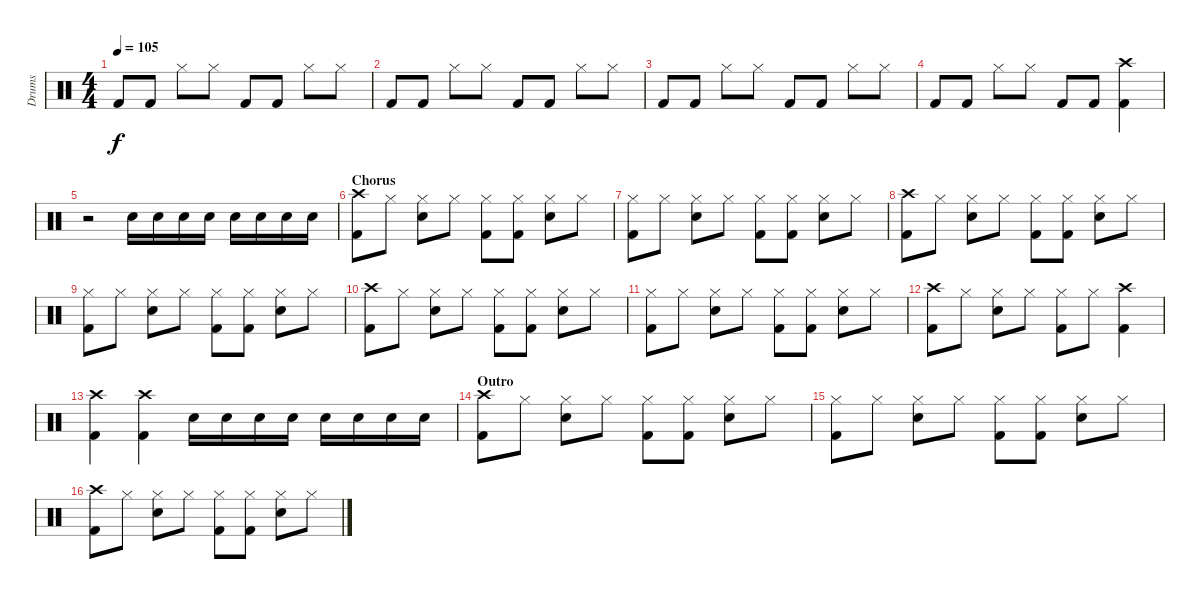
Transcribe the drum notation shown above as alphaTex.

\track ("Drums" "Drums") {instrument percussion}
\staff {score}
\articulation defaults
\ts (4 4)
\tempo 105
\clef neutral
\ks c "Kick (hit) 2".8{dy f} "Kick (hit) 2".8 "Hi-Hat (closed)".8 "Hi-Hat (closed)".8 "Kick (hit) 2".8 "Kick (hit) 2".8 "Hi-Hat (closed)".8 "Hi-Hat (closed)".8
|
"Kick (hit) 2".8 "Kick (hit) 2".8 "Hi-Hat (closed)".8 "Hi-Hat (closed)".8 "Kick (hit) 2".8 "Kick (hit) 2".8 "Hi-Hat (closed)".8 "Hi-Hat (closed)".8 |
"Kick (hit) 2".8 "Kick (hit) 2".8 "Hi-Hat (closed)".8 "Hi-Hat (closed)".8 "Kick (hit) 2".8 "Kick (hit) 2".8 "Hi-Hat (closed)".8 "Hi-Hat (closed)".8 |
"Kick (hit) 2".8 "Kick (hit) 2".8 "Hi-Hat (closed)".8 "Hi-Hat (closed)".8 "Kick (hit) 2".8 "Kick (hit) 2".8 ("Crash high (hit)" "Kick (hit) 2").4 |
r.2 "Snare (hit) 2".16 "Snare (hit) 2".16 "Snare (hit) 2".16 "Snare (hit) 2".16 "Snare (hit) 2".16 "Snare (hit) 2".16 "Snare (hit) 2".16 "Snare (hit) 2".16 |
\section ("" "Chorus")
("Crash high (hit)" "Kick (hit) 2").8 "Hi-Hat (closed)".8 ("Hi-Hat (closed)" "Snare (hit) 2").8 "Hi-Hat (closed)".8 ("Hi-Hat (closed)" "Kick (hit) 2").8 ("Hi-Hat (closed)" "Kick (hit) 2").8 ("Hi-Hat (closed)" "Snare (hit) 2").8 "Hi-Hat (closed)".8 |
("Hi-Hat (closed)" "Kick (hit) 2").8 "Hi-Hat (closed)".8 ("Hi-Hat (closed)" "Snare (hit) 2").8 "Hi-Hat (closed)".8 ("Hi-Hat (closed)" "Kick (hit) 2").8 ("Hi-Hat (closed)" "Kick (hit) 2").8 ("Hi-Hat (closed)" "Snare (hit) 2").8 "Hi-Hat (closed)".8 |
("Crash high (hit)" "Kick (hit) 2").8 "Hi-Hat (closed)".8 ("Hi-Hat (closed)" "Snare (hit) 2").8 "Hi-Hat (closed)".8 ("Hi-Hat (closed)" "Kick (hit) 2").8 ("Hi-Hat (closed)" "Kick (hit) 2").8 ("Hi-Hat (closed)" "Snare (hit) 2").8 "Hi-Hat (closed)".8 |
("Hi-Hat (closed)" "Kick (hit) 2").8 "Hi-Hat (closed)".8 ("Hi-Hat (closed)" "Snare (hit) 2").8 "Hi-Hat (closed)".8 ("Hi-Hat (closed)" "Kick (hit) 2").8 ("Hi-Hat (closed)" "Kick (hit) 2").8 ("Hi-Hat (closed)" "Snare (hit) 2").8 "Hi-Hat (closed)".8 |
("Crash high (hit)" "Kick (hit) 2").8 "Hi-Hat (closed)".8 ("Hi-Hat (closed)" "Snare (hit) 2").8 "Hi-Hat (closed)".8 ("Hi-Hat (closed)" "Kick (hit) 2").8 ("Hi-Hat (closed)" "Kick (hit) 2").8 ("Hi-Hat (closed)" "Snare (hit) 2").8 "Hi-Hat (closed)".8 |
("Hi-Hat (closed)" "Kick (hit) 2").8 "Hi-Hat (closed)".8 ("Hi-Hat (closed)" "Snare (hit) 2").8 "Hi-Hat (closed)".8 ("Hi-Hat (closed)" "Kick (hit) 2").8 ("Hi-Hat (closed)" "Kick (hit) 2").8 ("Hi-Hat (closed)" "Snare (hit) 2").8 "Hi-Hat (closed)".8 |
("Crash high (hit)" "Kick (hit) 2").8 "Hi-Hat (closed)".8 ("Hi-Hat (closed)" "Snare (hit) 2").8 "Hi-Hat (closed)".8 ("Hi-Hat (closed)" "Kick (hit) 2").8 "Hi-Hat (closed)".8 ("Crash high (hit)" "Kick (hit) 2").4 |
("Crash high (hit)" "Kick (hit) 2").4 ("Crash high (hit)" "Kick (hit) 2").4 "Snare (hit) 2".16 "Snare (hit) 2".16 "Snare (hit) 2".16 "Snare (hit) 2".16 "Snare (hit) 2".16 "Snare (hit) 2".16 "Snare (hit) 2".16 "Snare (hit) 2".16 |
\section ("" "Outro")
("Crash high (hit)" "Kick (hit) 2").8 "Hi-Hat (closed)".8 ("Hi-Hat (closed)" "Snare (hit) 2").8 "Hi-Hat (closed)".8 ("Hi-Hat (closed)" "Kick (hit) 2").8 ("Hi-Hat (closed)" "Kick (hit) 2").8 ("Hi-Hat (closed)" "Snare (hit) 2").8 "Hi-Hat (closed)".8 |
("Hi-Hat (closed)" "Kick (hit) 2").8 "Hi-Hat (closed)".8 ("Hi-Hat (closed)" "Snare (hit) 2").8 "Hi-Hat (closed)".8 ("Hi-Hat (closed)" "Kick (hit) 2").8 ("Hi-Hat (closed)" "Kick (hit) 2").8 ("Hi-Hat (closed)" "Snare (hit) 2").8 "Hi-Hat (closed)".8 |
("Crash high (hit)" "Kick (hit) 2").8 "Hi-Hat (closed)".8 ("Hi-Hat (closed)" "Snare (hit) 2").8 "Hi-Hat (closed)".8 ("Hi-Hat (closed)" "Kick (hit) 2").8 ("Hi-Hat (closed)" "Kick (hit) 2").8 ("Hi-Hat (closed)" "Snare (hit) 2").8 "Hi-Hat (closed)".8
